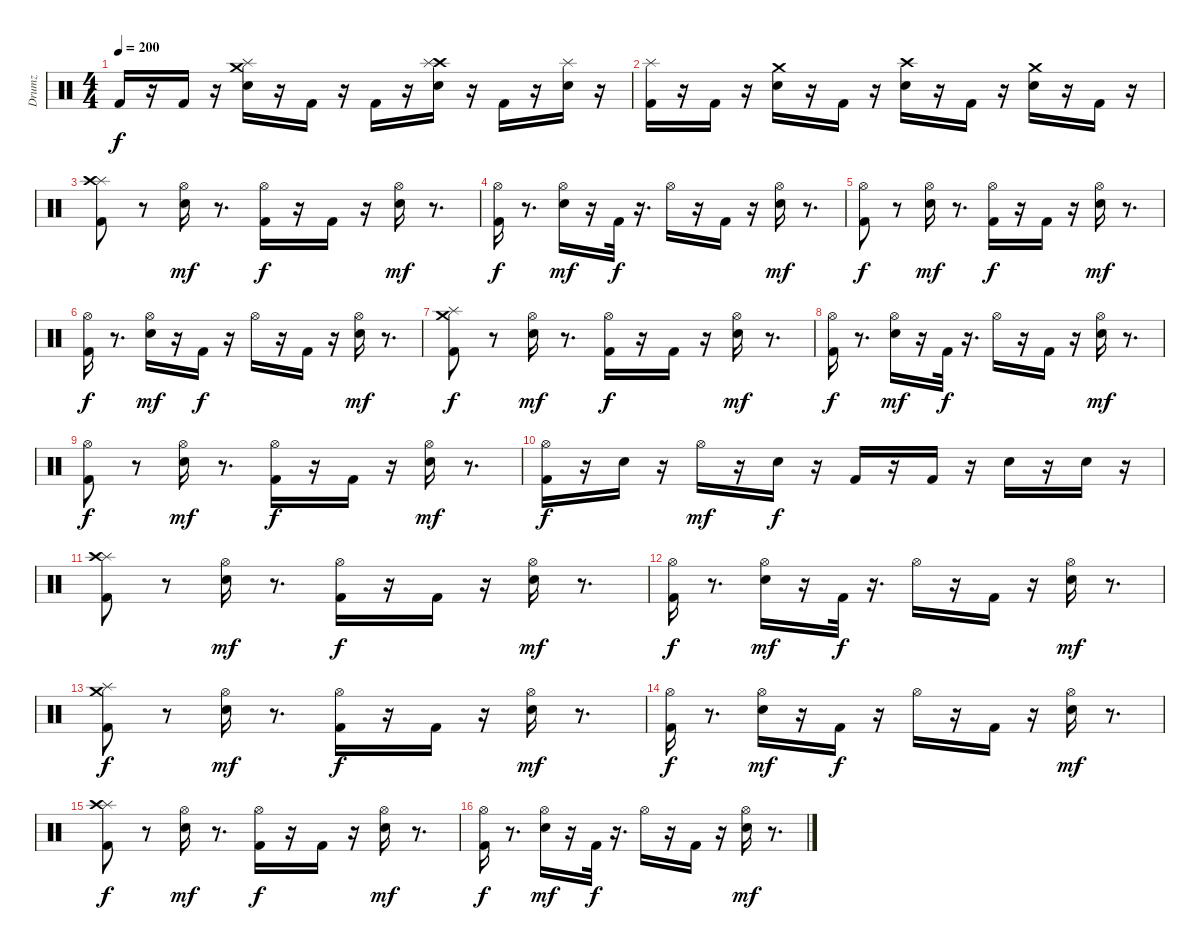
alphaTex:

\track ("Drumz" "Drumz") {instrument percussion}
\staff {score}
\articulation defaults
\ts (4 4)
\tempo 200
\clef neutral
\ks c "Kick (hit) 2".16{dy f}
r.16 "Kick (hit) 2".16 r.16 ("Snare (hit) 2" "Splash (hit)" "Crash medium (hit)").16 r.16 "Kick (hit) 2".16 r.16 "Kick (hit) 2".16 r.16 ("Snare (hit) 2" "Crash high (hit)" "Splash (hit)").16 r.16 "Kick (hit) 2".16 r.16 ("Snare (hit) 2" "Splash (hit)").16 r.16 |
("Kick (hit) 2" "Splash (hit)").16 r.16 "Kick (hit) 2".16 r.16 ("Crash medium (hit)" "Snare (hit) 2").16 r.16 "Kick (hit) 2".16 r.16 ("Snare (hit) 2" "Crash high (hit)").16 r.16 "Kick (hit) 2".16 r.16 ("Snare (hit) 2" "Crash medium (hit)").16 r.16 "Kick (hit) 2".16 r.16 |
("Kick (hit) 2" "Splash (hit)" "Crash high (hit)").8 r.8 ("Snare (hit) 2" "Hi-Hat (open)").16{dy mf} r.8{d} ("Hi-Hat (open)" "Kick (hit) 2").16{dy f} r.16 "Kick (hit) 2".16 r.16 ("Snare (hit) 2" "Hi-Hat (open)").16{dy mf} r.8{d} |
("Kick (hit) 2" "Hi-Hat (open)").16{dy f} r.8{d} ("Snare (hit) 2" "Hi-Hat (open)").16{dy mf} r.16 "Kick (hit) 2".32{dy f} r.16{d} "Hi-Hat (open)".16 r.16 "Kick (hit) 2".16 r.16 ("Snare (hit) 2" "Hi-Hat (open)").16{dy mf} r.8{d} |
("Kick (hit) 2" "Hi-Hat (open)").8{dy f} r.8 ("Snare (hit) 2" "Hi-Hat (open)").16{dy mf} r.8{d} ("Hi-Hat (open)" "Kick (hit) 2").16{dy f} r.16 "Kick (hit) 2".16 r.16 ("Snare (hit) 2" "Hi-Hat (open)").16{dy mf} r.8{d} |
("Kick (hit) 2" "Hi-Hat (open)").16{dy f} r.8{d} ("Snare (hit) 2" "Hi-Hat (open)").16{dy mf} r.16 "Kick (hit) 2".16{dy f} r.16 "Hi-Hat (open)".16 r.16 "Kick (hit) 2".16 r.16 ("Snare (hit) 2" "Hi-Hat (open)").16{dy mf} r.8{d} |
("Kick (hit) 2" "Splash (hit)" "Crash medium (hit)").8{dy f} r.8 ("Snare (hit) 2" "Hi-Hat (open)").16{dy mf} r.8{d} ("Hi-Hat (open)" "Kick (hit) 2").16{dy f} r.16 "Kick (hit) 2".16 r.16 ("Snare (hit) 2" "Hi-Hat (open)").16{dy mf} r.8{d} |
("Kick (hit) 2" "Hi-Hat (open)").16{dy f} r.8{d} ("Snare (hit) 2" "Hi-Hat (open)").16{dy mf} r.16 "Kick (hit) 2".32{dy f} r.16{d} "Hi-Hat (open)".16 r.16 "Kick (hit) 2".16 r.16 ("Snare (hit) 2" "Hi-Hat (open)").16{dy mf} r.8{d} |
("Kick (hit) 2" "Hi-Hat (open)").8{dy f} r.8 ("Snare (hit) 2" "Hi-Hat (open)").16{dy mf} r.8{d} ("Hi-Hat (open)" "Kick (hit) 2").16{dy f} r.16 "Kick (hit) 2".16 r.16 ("Snare (hit) 2" "Hi-Hat (open)").16{dy mf} r.8{d} |
("Kick (hit) 2" "Hi-Hat (open)").16{dy f} r.16 "Snare (hit) 2".16 r.16 "Hi-Hat (open)".16{dy mf} r.16 "Snare (hit) 2".16{dy f} r.16 "Kick (hit) 2".16 r.16 "Kick (hit) 2".16 r.16 "Snare (hit) 2".16 r.16 "Snare (hit) 2".16 r.16 |
("Kick (hit) 2" "Splash (hit)" "Crash high (hit)").8 r.8 ("Snare (hit) 2" "Hi-Hat (open)").16{dy mf} r.8{d} ("Hi-Hat (open)" "Kick (hit) 2").16{dy f} r.16 "Kick (hit) 2".16 r.16 ("Snare (hit) 2" "Hi-Hat (open)").16{dy mf} r.8{d} |
("Kick (hit) 2" "Hi-Hat (open)").16{dy f} r.8{d} ("Snare (hit) 2" "Hi-Hat (open)").16{dy mf} r.16 "Kick (hit) 2".32{dy f} r.16{d} "Hi-Hat (open)".16 r.16 "Kick (hit) 2".16 r.16 ("Snare (hit) 2" "Hi-Hat (open)").16{dy mf} r.8{d} |
("Kick (hit) 2" "Splash (hit)" "Crash medium (hit)").8{dy f} r.8 ("Snare (hit) 2" "Hi-Hat (open)").16{dy mf} r.8{d} ("Hi-Hat (open)" "Kick (hit) 2").16{dy f} r.16 "Kick (hit) 2".16 r.16 ("Snare (hit) 2" "Hi-Hat (open)").16{dy mf} r.8{d} |
("Kick (hit) 2" "Hi-Hat (open)").16{dy f} r.8{d} ("Snare (hit) 2" "Hi-Hat (open)").16{dy mf} r.16 "Kick (hit) 2".16{dy f} r.16 "Hi-Hat (open)".16 r.16 "Kick (hit) 2".16 r.16 ("Snare (hit) 2" "Hi-Hat (open)").16{dy mf} r.8{d} |
("Kick (hit) 2" "Splash (hit)" "Crash high (hit)").8{dy f} r.8 ("Snare (hit) 2" "Hi-Hat (open)").16{dy mf} r.8{d} ("Hi-Hat (open)" "Kick (hit) 2").16{dy f} r.16 "Kick (hit) 2".16 r.16 ("Snare (hit) 2" "Hi-Hat (open)").16{dy mf} r.8{d} |
("Kick (hit) 2" "Hi-Hat (open)").16{dy f} r.8{d} ("Snare (hit) 2" "Hi-Hat (open)").16{dy mf} r.16 "Kick (hit) 2".32{dy f} r.16{d} "Hi-Hat (open)".16 r.16 "Kick (hit) 2".16 r.16 ("Snare (hit) 2" "Hi-Hat (open)").16{dy mf} r.8{d}
